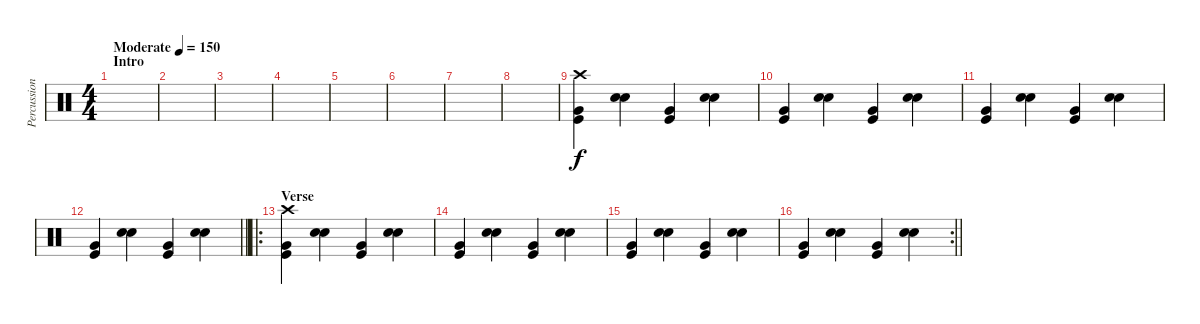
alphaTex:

\track ("Percussion" "Percussion") {instrument percussion}
\staff {score}
\articulation defaults
\ts (4 4)
\section ("" "Intro")
\tempo (150 "Moderate")
\clef neutral
\ks c
|
|
|
|
|
|
|
|
("Kick (hit)" "Very Low Tom (hit)" "Crash high (hit)").4 ("Snare (hit) 2" "Snare (hit) 2").4 ("Kick (hit)" "Very Low Tom (hit)").4 ("Snare (hit) 2" "Snare (hit) 2").4 |
("Kick (hit)" "Very Low Tom (hit)").4 ("Snare (hit) 2" "Snare (hit) 2").4 ("Kick (hit)" "Very Low Tom (hit)").4 ("Snare (hit) 2" "Snare (hit) 2").4 |
("Kick (hit)" "Very Low Tom (hit)").4 ("Snare (hit) 2" "Snare (hit) 2").4 ("Kick (hit)" "Very Low Tom (hit)").4 ("Snare (hit) 2" "Snare (hit) 2").4 |
\barLineRight lightlight
("Kick (hit)" "Very Low Tom (hit)").4 ("Snare (hit) 2" "Snare (hit) 2").4 ("Kick (hit)" "Very Low Tom (hit)").4 ("Snare (hit) 2" "Snare (hit) 2").4 |
\ro
\section ("" "Verse")
("Kick (hit)" "Very Low Tom (hit)" "Crash high (hit)").4 ("Snare (hit) 2" "Snare (hit) 2").4 ("Kick (hit)" "Very Low Tom (hit)").4 ("Snare (hit) 2" "Snare (hit) 2").4 |
("Kick (hit)" "Very Low Tom (hit)").4 ("Snare (hit) 2" "Snare (hit) 2").4 ("Kick (hit)" "Very Low Tom (hit)").4 ("Snare (hit) 2" "Snare (hit) 2").4 |
("Kick (hit)" "Very Low Tom (hit)").4 ("Snare (hit) 2" "Snare (hit) 2").4 ("Kick (hit)" "Very Low Tom (hit)").4 ("Snare (hit) 2" "Snare (hit) 2").4 |
\rc 2
\barLineRight lightlight
("Kick (hit)" "Very Low Tom (hit)").4 ("Snare (hit) 2" "Snare (hit) 2").4 ("Kick (hit)" "Very Low Tom (hit)").4 ("Snare (hit) 2" "Snare (hit) 2").4
